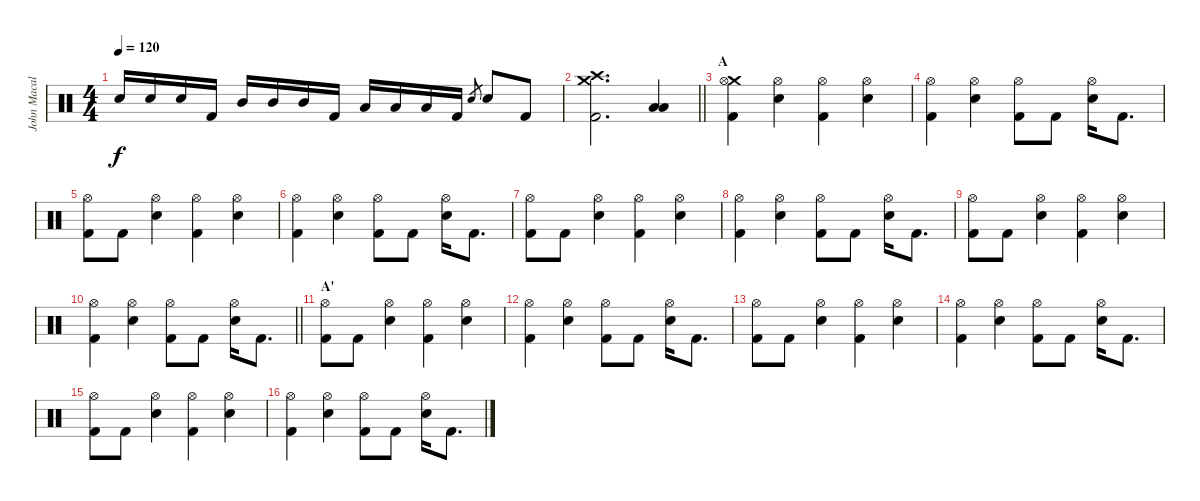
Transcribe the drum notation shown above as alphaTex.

\track ("John Macaluso" "John Macal") {instrument percussion}
\staff {score}
\articulation defaults
\ts (4 4)
\tempo 120
\clef neutral
\ks c "Snare (hit) 2".16{dy f} "Snare (hit) 2".16 "Snare (hit) 2".16 "Kick (hit) 2".16 "Mid Tom (hit)".16 "Mid Tom (hit)".16 "Mid Tom (hit)".16 "Kick (hit) 2".16 "Low Tom (hit)".16 "Low Tom (hit)".16 "Low Tom (hit)".16 "Kick (hit) 2".16 "Snare (hit) 2".8{gr} "Snare (hit) 2".8 "Kick (hit) 2".8
|
\barLineRight lightlight
("Crash medium (hit)" "Crash high (hit)" "Kick (hit) 2").2{d} ("Low Tom (hit)" "Low Tom (hit)").4 |
\section ("" "A")
("Crash medium (hit)" "Hi-Hat (open)" "Kick (hit) 2").4 ("Hi-Hat (open)" "Snare (hit) 2").4 ("Hi-Hat (open)" "Kick (hit) 2").4 ("Hi-Hat (open)" "Snare (hit) 2").4 |
("Hi-Hat (open)" "Kick (hit) 2").4 ("Hi-Hat (open)" "Snare (hit) 2").4 ("Hi-Hat (open)" "Kick (hit) 2").8 "Kick (hit) 2".8 ("Hi-Hat (open)" "Snare (hit) 2").16 "Kick (hit) 2".8{d} |
("Hi-Hat (open)" "Kick (hit) 2").8 "Kick (hit) 2".8 ("Hi-Hat (open)" "Snare (hit) 2").4 ("Hi-Hat (open)" "Kick (hit) 2").4 ("Hi-Hat (open)" "Snare (hit) 2").4 |
("Hi-Hat (open)" "Kick (hit) 2").4 ("Hi-Hat (open)" "Snare (hit) 2").4 ("Hi-Hat (open)" "Kick (hit) 2").8 "Kick (hit) 2".8 ("Hi-Hat (open)" "Snare (hit) 2").16 "Kick (hit) 2".8{d} |
("Hi-Hat (open)" "Kick (hit) 2").8 "Kick (hit) 2".8 ("Hi-Hat (open)" "Snare (hit) 2").4 ("Hi-Hat (open)" "Kick (hit) 2").4 ("Hi-Hat (open)" "Snare (hit) 2").4 |
("Hi-Hat (open)" "Kick (hit) 2").4 ("Hi-Hat (open)" "Snare (hit) 2").4 ("Hi-Hat (open)" "Kick (hit) 2").8 "Kick (hit) 2".8 ("Hi-Hat (open)" "Snare (hit) 2").16 "Kick (hit) 2".8{d} |
("Hi-Hat (open)" "Kick (hit) 2").8 "Kick (hit) 2".8 ("Hi-Hat (open)" "Snare (hit) 2").4 ("Hi-Hat (open)" "Kick (hit) 2").4 ("Hi-Hat (open)" "Snare (hit) 2").4 |
\barLineRight lightlight
("Hi-Hat (open)" "Kick (hit) 2").4 ("Hi-Hat (open)" "Snare (hit) 2").4 ("Hi-Hat (open)" "Kick (hit) 2").8 "Kick (hit) 2".8 ("Hi-Hat (open)" "Snare (hit) 2").16 "Kick (hit) 2".8{d} |
\section ("" "A'")
("Hi-Hat (open)" "Kick (hit) 2").8 "Kick (hit) 2".8 ("Hi-Hat (open)" "Snare (hit) 2").4 ("Hi-Hat (open)" "Kick (hit) 2").4 ("Hi-Hat (open)" "Snare (hit) 2").4 |
("Hi-Hat (open)" "Kick (hit) 2").4 ("Hi-Hat (open)" "Snare (hit) 2").4 ("Hi-Hat (open)" "Kick (hit) 2").8 "Kick (hit) 2".8 ("Hi-Hat (open)" "Snare (hit) 2").16 "Kick (hit) 2".8{d} |
("Hi-Hat (open)" "Kick (hit) 2").8 "Kick (hit) 2".8 ("Hi-Hat (open)" "Snare (hit) 2").4 ("Hi-Hat (open)" "Kick (hit) 2").4 ("Hi-Hat (open)" "Snare (hit) 2").4 |
("Hi-Hat (open)" "Kick (hit) 2").4 ("Hi-Hat (open)" "Snare (hit) 2").4 ("Hi-Hat (open)" "Kick (hit) 2").8 "Kick (hit) 2".8 ("Hi-Hat (open)" "Snare (hit) 2").16 "Kick (hit) 2".8{d} |
("Hi-Hat (open)" "Kick (hit) 2").8 "Kick (hit) 2".8 ("Hi-Hat (open)" "Snare (hit) 2").4 ("Hi-Hat (open)" "Kick (hit) 2").4 ("Hi-Hat (open)" "Snare (hit) 2").4 |
("Hi-Hat (open)" "Kick (hit) 2").4 ("Hi-Hat (open)" "Snare (hit) 2").4 ("Hi-Hat (open)" "Kick (hit) 2").8 "Kick (hit) 2".8 ("Hi-Hat (open)" "Snare (hit) 2").16 "Kick (hit) 2".8{d}
